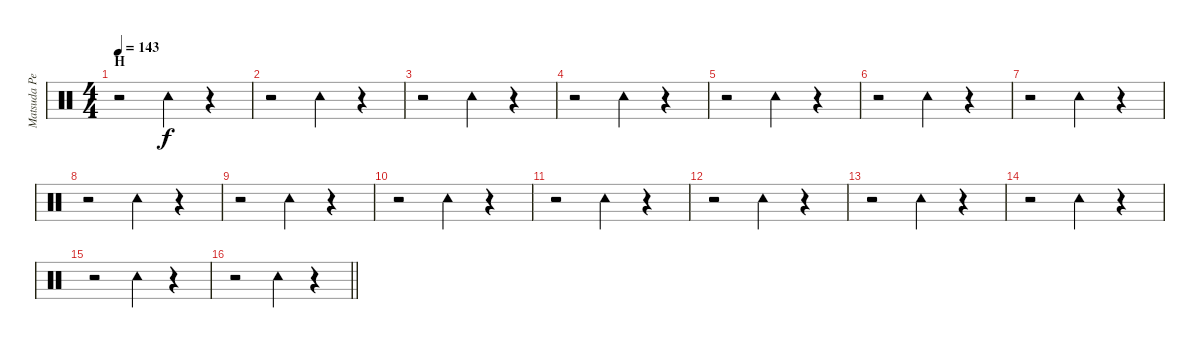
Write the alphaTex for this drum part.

\track ("Matsuda Percussion" "Matsuda Pe") {instrument percussion}
\staff {score}
\articulation defaults
\ts (4 4)
\section ("" "H")
\tempo 143
\clef neutral
\ks c
r.2{dy f} "Tambourine (hit)".4 r.4 |
r.2 "Tambourine (hit)".4 r.4 |
r.2 "Tambourine (hit)".4 r.4 |
r.2 "Tambourine (hit)".4 r.4 |
r.2 "Tambourine (hit)".4 r.4 |
r.2 "Tambourine (hit)".4 r.4 |
r.2 "Tambourine (hit)".4 r.4 |
r.2 "Tambourine (hit)".4 r.4 |
r.2 "Tambourine (hit)".4 r.4 |
r.2 "Tambourine (hit)".4 r.4 |
r.2 "Tambourine (hit)".4 r.4 |
r.2 "Tambourine (hit)".4 r.4 |
r.2 "Tambourine (hit)".4 r.4 |
r.2 "Tambourine (hit)".4 r.4 |
r.2 "Tambourine (hit)".4 r.4 |
\barLineRight lightlight
r.2 "Tambourine (hit)".4 r.4
